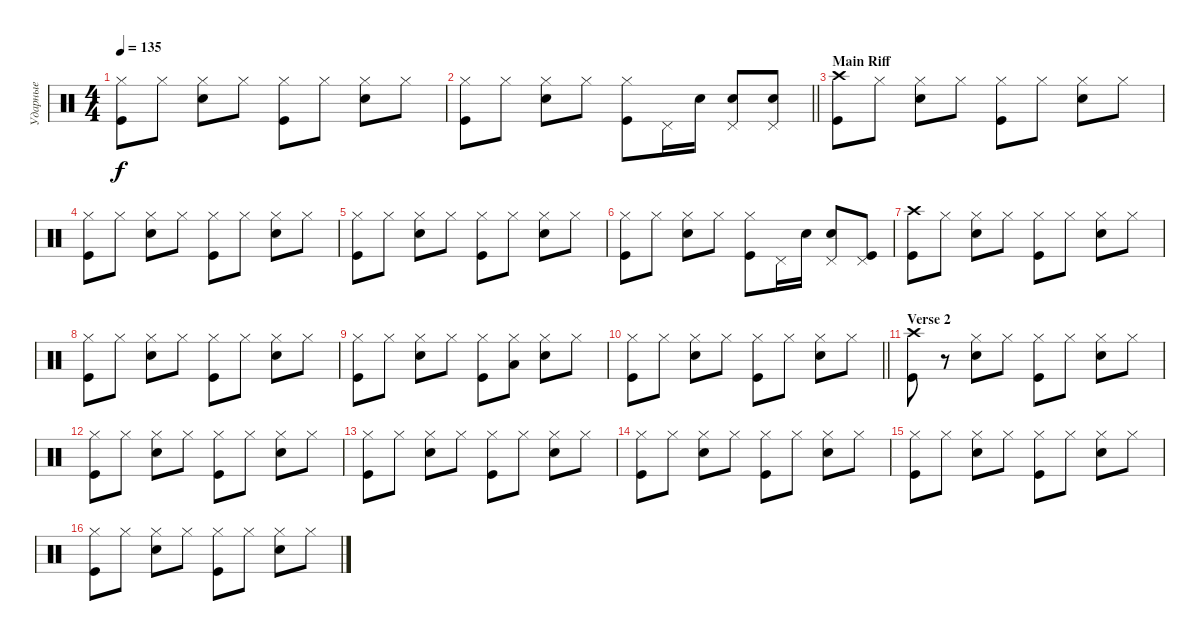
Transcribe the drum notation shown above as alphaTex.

\track ("Ударные" "Ударные") {instrument percussion}
\staff {score}
\articulation defaults
\ts (4 4)
\tempo 135
\clef neutral
\ks c
("Hi-Hat (closed)" "Kick (hit)").8{dy f} "Hi-Hat (closed)".8 ("Hi-Hat (closed)" "Snare (hit) 2").8 "Hi-Hat (closed)".8 ("Hi-Hat (closed)" "Kick (hit)").8 "Hi-Hat (closed)".8 ("Hi-Hat (closed)" "Snare (hit) 2").8 "Hi-Hat (closed)".8 |
\barLineRight lightlight
("Hi-Hat (closed)" "Kick (hit)").8 "Hi-Hat (closed)".8 ("Hi-Hat (closed)" "Snare (hit) 2").8 "Hi-Hat (closed)".8 ("Hi-Hat (closed)" "Kick (hit)").8 "Pedal Hi-Hat (hit)".16 "Snare (hit) 2".16 ("Pedal Hi-Hat (hit)" "Snare (hit) 2").8 ("Pedal Hi-Hat (hit)" "Snare (hit) 2").8 |
\section ("" "Main Riff")
("Crash high (hit)" "Kick (hit)").8 "Hi-Hat (closed)".8 ("Hi-Hat (closed)" "Snare (hit) 2").8 "Hi-Hat (closed)".8 ("Hi-Hat (closed)" "Kick (hit)").8 "Hi-Hat (closed)".8 ("Hi-Hat (closed)" "Snare (hit) 2").8 "Hi-Hat (closed)".8 |
("Hi-Hat (closed)" "Kick (hit)").8 "Hi-Hat (closed)".8 ("Hi-Hat (closed)" "Snare (hit) 2").8 "Hi-Hat (closed)".8 ("Hi-Hat (closed)" "Kick (hit)").8 "Hi-Hat (closed)".8 ("Hi-Hat (closed)" "Snare (hit) 2").8 "Hi-Hat (closed)".8 |
("Hi-Hat (closed)" "Kick (hit)").8 "Hi-Hat (closed)".8 ("Hi-Hat (closed)" "Snare (hit) 2").8 "Hi-Hat (closed)".8 ("Hi-Hat (closed)" "Kick (hit)").8 "Hi-Hat (closed)".8 ("Hi-Hat (closed)" "Snare (hit) 2").8 "Hi-Hat (closed)".8 |
("Hi-Hat (closed)" "Kick (hit)").8 "Hi-Hat (closed)".8 ("Hi-Hat (closed)" "Snare (hit) 2").8 "Hi-Hat (closed)".8 ("Hi-Hat (closed)" "Kick (hit)").8 "Pedal Hi-Hat (hit)".16 "Snare (hit) 2".16 ("Pedal Hi-Hat (hit)" "Snare (hit) 2").8 ("Pedal Hi-Hat (hit)" "Kick (hit)").8 |
("Crash high (hit)" "Kick (hit)").8 "Hi-Hat (closed)".8 ("Hi-Hat (closed)" "Snare (hit) 2").8 "Hi-Hat (closed)".8 ("Hi-Hat (closed)" "Kick (hit)").8 "Hi-Hat (closed)".8 ("Hi-Hat (closed)" "Snare (hit) 2").8 "Hi-Hat (closed)".8 |
("Hi-Hat (closed)" "Kick (hit)").8 "Hi-Hat (closed)".8 ("Hi-Hat (closed)" "Snare (hit) 2").8 "Hi-Hat (closed)".8 ("Hi-Hat (closed)" "Kick (hit)").8 "Hi-Hat (closed)".8 ("Hi-Hat (closed)" "Snare (hit) 2").8 "Hi-Hat (closed)".8 |
("Hi-Hat (closed)" "Kick (hit)").8 "Hi-Hat (closed)".8 ("Hi-Hat (closed)" "Snare (hit) 2").8 "Hi-Hat (closed)".8 ("Kick (hit)" "Hi-Hat (closed)").8 ("Low Tom (hit)" "Hi-Hat (closed)").8 ("Hi-Hat (closed)" "Snare (hit) 2").8 "Hi-Hat (closed)".8 |
\barLineRight lightlight
("Hi-Hat (closed)" "Kick (hit)").8 "Hi-Hat (closed)".8 ("Hi-Hat (closed)" "Snare (hit) 2").8 "Hi-Hat (closed)".8 ("Hi-Hat (closed)" "Kick (hit)").8 "Hi-Hat (closed)".8 ("Hi-Hat (closed)" "Snare (hit) 2").8 "Hi-Hat (closed)".8 |
\section ("" "Verse 2")
("Crash high (hit)" "Kick (hit)").8 r.8 ("Hi-Hat (closed)" "Snare (hit) 2").8 "Hi-Hat (closed)".8 ("Hi-Hat (closed)" "Kick (hit)").8 "Hi-Hat (closed)".8 ("Hi-Hat (closed)" "Snare (hit) 2").8 "Hi-Hat (closed)".8 |
("Hi-Hat (closed)" "Kick (hit)").8 "Hi-Hat (closed)".8 ("Hi-Hat (closed)" "Snare (hit) 2").8 "Hi-Hat (closed)".8 ("Hi-Hat (closed)" "Kick (hit)").8 "Hi-Hat (closed)".8 ("Hi-Hat (closed)" "Snare (hit) 2").8 "Hi-Hat (closed)".8 |
("Hi-Hat (closed)" "Kick (hit)").8 "Hi-Hat (closed)".8 ("Hi-Hat (closed)" "Snare (hit) 2").8 "Hi-Hat (closed)".8 ("Hi-Hat (closed)" "Kick (hit)").8 "Hi-Hat (closed)".8 ("Hi-Hat (closed)" "Snare (hit) 2").8 "Hi-Hat (closed)".8 |
("Hi-Hat (closed)" "Kick (hit)").8 "Hi-Hat (closed)".8 ("Hi-Hat (closed)" "Snare (hit) 2").8 "Hi-Hat (closed)".8 ("Hi-Hat (closed)" "Kick (hit)").8 "Hi-Hat (closed)".8 ("Hi-Hat (closed)" "Snare (hit) 2").8 "Hi-Hat (closed)".8 |
("Hi-Hat (closed)" "Kick (hit)").8 "Hi-Hat (closed)".8 ("Hi-Hat (closed)" "Snare (hit) 2").8 "Hi-Hat (closed)".8 ("Hi-Hat (closed)" "Kick (hit)").8 "Hi-Hat (closed)".8 ("Hi-Hat (closed)" "Snare (hit) 2").8 "Hi-Hat (closed)".8 |
("Hi-Hat (closed)" "Kick (hit)").8 "Hi-Hat (closed)".8 ("Hi-Hat (closed)" "Snare (hit) 2").8 "Hi-Hat (closed)".8 ("Hi-Hat (closed)" "Kick (hit)").8 "Hi-Hat (closed)".8 ("Hi-Hat (closed)" "Snare (hit) 2").8 "Hi-Hat (closed)".8
